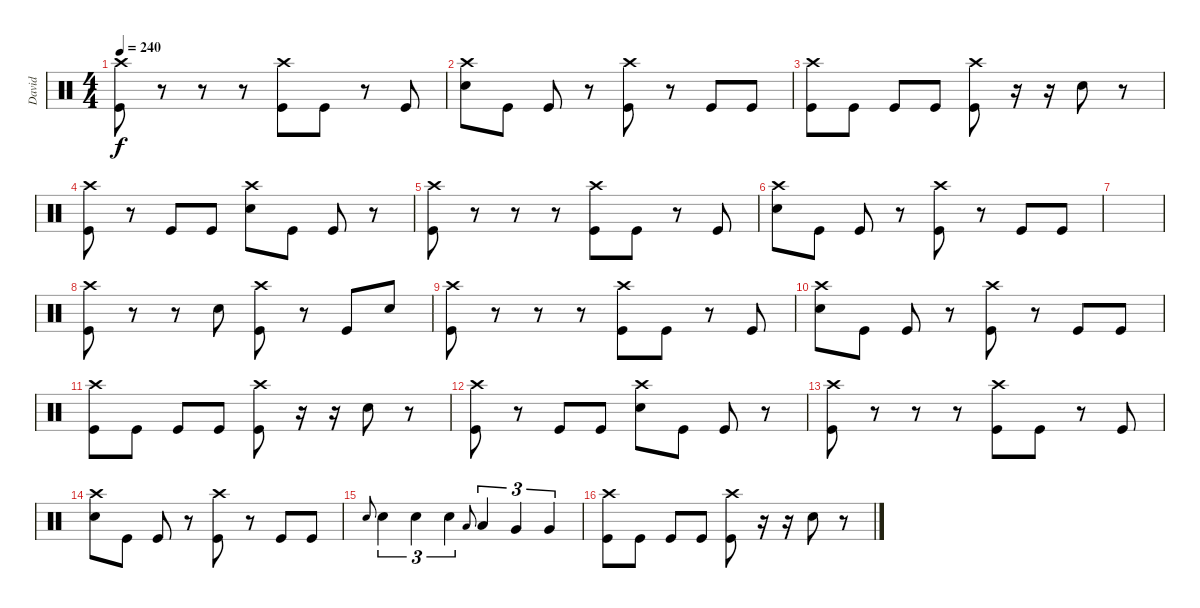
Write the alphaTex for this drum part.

\track ("David" "David") {instrument percussion}
\staff {score}
\articulation defaults
\ts (4 4)
\tempo 240
\clef neutral
\ks c
("Crash high (hit)" "Kick (hit)").8{dy f} r.8 r.8 r.8 ("Crash high (hit)" "Kick (hit)").8 "Kick (hit)".8 r.8 "Kick (hit)".8 |
("Crash high (hit)" "Electric Snare (hit)").8 "Kick (hit)".8 "Kick (hit)".8 r.8 ("Crash high (hit)" "Kick (hit)").8 r.8 "Kick (hit)".8 "Kick (hit)".8 |
("Crash high (hit)" "Kick (hit)").8 "Kick (hit)".8 "Kick (hit)".8 "Kick (hit)".8 ("Crash high (hit)" "Kick (hit)").8 r.16 r.16 "Electric Snare (hit)".8 r.8 |
("Crash high (hit)" "Kick (hit)").8 r.8 "Kick (hit)".8 "Kick (hit)".8 ("Crash high (hit)" "Electric Snare (hit)").8 "Kick (hit)".8 "Kick (hit)".8 r.8 |
("Crash high (hit)" "Kick (hit)").8 r.8 r.8 r.8 ("Crash high (hit)" "Kick (hit)").8 "Kick (hit)".8 r.8 "Kick (hit)".8 |
("Crash high (hit)" "Electric Snare (hit)").8 "Kick (hit)".8 "Kick (hit)".8 r.8 ("Crash high (hit)" "Kick (hit)").8 r.8 "Kick (hit)".8 "Kick (hit)".8 |
|
("Crash high (hit)" "Kick (hit)").8 r.8 r.8 "Electric Snare (hit)".8 ("Crash high (hit)" "Kick (hit)").8 r.8 "Kick (hit)".8 "Electric Snare (hit)".8 |
("Crash high (hit)" "Kick (hit)").8 r.8 r.8 r.8 ("Crash high (hit)" "Kick (hit)").8 "Kick (hit)".8 r.8 "Kick (hit)".8 |
("Crash high (hit)" "Electric Snare (hit)").8 "Kick (hit)".8 "Kick (hit)".8 r.8 ("Crash high (hit)" "Kick (hit)").8 r.8 "Kick (hit)".8 "Kick (hit)".8 |
("Crash high (hit)" "Kick (hit)").8 "Kick (hit)".8 "Kick (hit)".8 "Kick (hit)".8 ("Crash high (hit)" "Kick (hit)").8 r.16 r.16 "Electric Snare (hit)".8 r.8 |
("Crash high (hit)" "Kick (hit)").8 r.8 "Kick (hit)".8 "Kick (hit)".8 ("Crash high (hit)" "Electric Snare (hit)").8 "Kick (hit)".8 "Kick (hit)".8 r.8 |
("Crash high (hit)" "Kick (hit)").8 r.8 r.8 r.8 ("Crash high (hit)" "Kick (hit)").8 "Kick (hit)".8 r.8 "Kick (hit)".8 |
("Crash high (hit)" "Electric Snare (hit)").8 "Kick (hit)".8 "Kick (hit)".8 r.8 ("Crash high (hit)" "Kick (hit)").8 r.8 "Kick (hit)".8 "Kick (hit)".8 |
"Electric Snare (hit)".8{gr onbeat} "Electric Snare (hit)".4{tu (3 2)} "Electric Snare (hit)".4{tu (3 2)} "Electric Snare (hit)".4{tu (3 2)} "Low Tom (hit)".8{gr onbeat} "Low Tom (hit)".4{tu (3 2)} "Very Low Tom (hit)".4{tu (3 2)} "Very Low Tom (hit)".4{tu (3 2)} |
("Crash high (hit)" "Kick (hit)").8 "Kick (hit)".8 "Kick (hit)".8 "Kick (hit)".8 ("Crash high (hit)" "Kick (hit)").8 r.16 r.16 "Electric Snare (hit)".8 r.8
